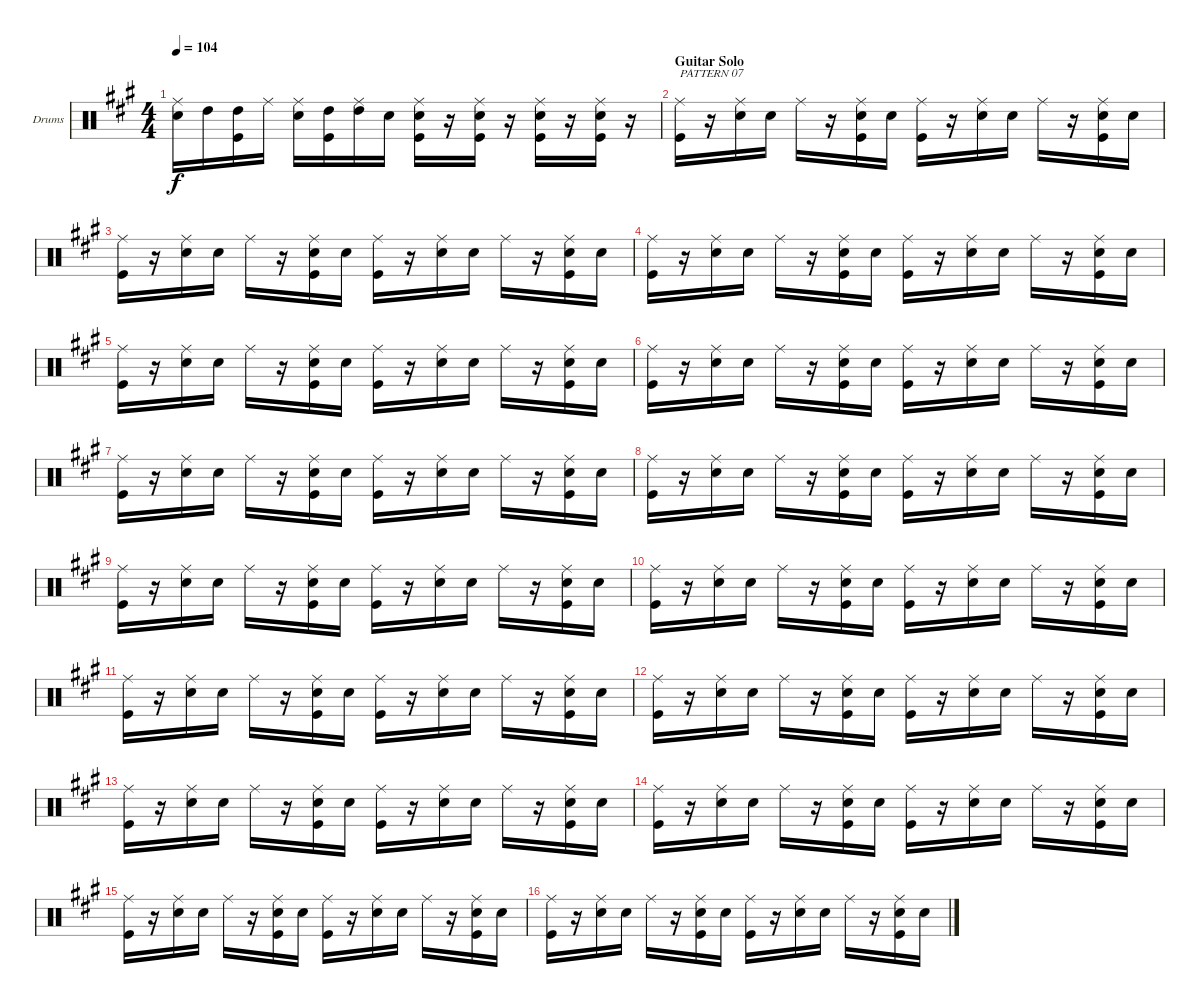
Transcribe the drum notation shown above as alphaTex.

\bracketExtendMode groupsimilarinstruments
\firstSystemTrackNameOrientation horizontal
\otherSystemsTrackNameOrientation horizontal
\track ("Drumkit" "Drums") {instrument percussion}
\staff {score}
\articulation defaults
\ts (4 4)
\tempo 104
\clef neutral
\ks a
("Ride (middle)" "Snare (hit) 2").16{dy f} "High Tom (hit)".16 ("High Tom (hit)" "Kick (hit)").16 "Ride (middle)".16 ("Ride (middle)" "Snare (hit) 2").16 ("High Tom (hit)" "Kick (hit)").16 ("Ride (middle)" "High Tom (hit)").16 "Snare (hit) 2".16 ("Ride (middle)" "Snare (hit) 2" "Kick (hit)").16 r.16 ("Ride (middle)" "Snare (hit) 2" "Kick (hit)").16 r.16 ("Ride (middle)" "Snare (hit) 2" "Kick (hit)").16 r.16 ("Ride (middle)" "Snare (hit) 2" "Kick (hit)").16 r.16 |
\section ("" "Guitar Solo")
("Ride (middle)" "Kick (hit)").16{txt "PATTERN 07"} r.16 ("Ride (middle)" "Snare (hit) 2").16 "Snare (hit) 2".16 "Ride (middle)".16 r.16 ("Ride (middle)" "Snare (hit) 2" "Kick (hit)").16 "Snare (hit) 2".16 ("Ride (middle)" "Kick (hit)").16 r.16 ("Ride (middle)" "Snare (hit) 2").16 "Snare (hit) 2".16 "Ride (middle)".16 r.16 ("Ride (middle)" "Snare (hit) 2" "Kick (hit)").16 "Snare (hit) 2".16 |
("Ride (middle)" "Kick (hit)").16 r.16 ("Ride (middle)" "Snare (hit) 2").16 "Snare (hit) 2".16 "Ride (middle)".16 r.16 ("Ride (middle)" "Snare (hit) 2" "Kick (hit)").16 "Snare (hit) 2".16 ("Ride (middle)" "Kick (hit)").16 r.16 ("Ride (middle)" "Snare (hit) 2").16 "Snare (hit) 2".16 "Ride (middle)".16 r.16 ("Ride (middle)" "Snare (hit) 2" "Kick (hit)").16 "Snare (hit) 2".16 |
("Ride (middle)" "Kick (hit)").16 r.16 ("Ride (middle)" "Snare (hit) 2").16 "Snare (hit) 2".16 "Ride (middle)".16 r.16 ("Ride (middle)" "Snare (hit) 2" "Kick (hit)").16 "Snare (hit) 2".16 ("Ride (middle)" "Kick (hit)").16 r.16 ("Ride (middle)" "Snare (hit) 2").16 "Snare (hit) 2".16 "Ride (middle)".16 r.16 ("Ride (middle)" "Snare (hit) 2" "Kick (hit)").16 "Snare (hit) 2".16 |
("Ride (middle)" "Kick (hit)").16 r.16 ("Ride (middle)" "Snare (hit) 2").16 "Snare (hit) 2".16 "Ride (middle)".16 r.16 ("Ride (middle)" "Snare (hit) 2" "Kick (hit)").16 "Snare (hit) 2".16 ("Ride (middle)" "Kick (hit)").16 r.16 ("Ride (middle)" "Snare (hit) 2").16 "Snare (hit) 2".16 "Ride (middle)".16 r.16 ("Ride (middle)" "Snare (hit) 2" "Kick (hit)").16 "Snare (hit) 2".16 |
("Ride (middle)" "Kick (hit)").16 r.16 ("Ride (middle)" "Snare (hit) 2").16 "Snare (hit) 2".16 "Ride (middle)".16 r.16 ("Ride (middle)" "Snare (hit) 2" "Kick (hit)").16 "Snare (hit) 2".16 ("Ride (middle)" "Kick (hit)").16 r.16 ("Ride (middle)" "Snare (hit) 2").16 "Snare (hit) 2".16 "Ride (middle)".16 r.16 ("Ride (middle)" "Snare (hit) 2" "Kick (hit)").16 "Snare (hit) 2".16 |
("Ride (middle)" "Kick (hit)").16 r.16 ("Ride (middle)" "Snare (hit) 2").16 "Snare (hit) 2".16 "Ride (middle)".16 r.16 ("Ride (middle)" "Snare (hit) 2" "Kick (hit)").16 "Snare (hit) 2".16 ("Ride (middle)" "Kick (hit)").16 r.16 ("Ride (middle)" "Snare (hit) 2").16 "Snare (hit) 2".16 "Ride (middle)".16 r.16 ("Ride (middle)" "Snare (hit) 2" "Kick (hit)").16 "Snare (hit) 2".16 |
("Ride (middle)" "Kick (hit)").16 r.16 ("Ride (middle)" "Snare (hit) 2").16 "Snare (hit) 2".16 "Ride (middle)".16 r.16 ("Ride (middle)" "Snare (hit) 2" "Kick (hit)").16 "Snare (hit) 2".16 ("Ride (middle)" "Kick (hit)").16 r.16 ("Ride (middle)" "Snare (hit) 2").16 "Snare (hit) 2".16 "Ride (middle)".16 r.16 ("Ride (middle)" "Snare (hit) 2" "Kick (hit)").16 "Snare (hit) 2".16 |
("Ride (middle)" "Kick (hit)").16 r.16 ("Ride (middle)" "Snare (hit) 2").16 "Snare (hit) 2".16 "Ride (middle)".16 r.16 ("Ride (middle)" "Snare (hit) 2" "Kick (hit)").16 "Snare (hit) 2".16 ("Ride (middle)" "Kick (hit)").16 r.16 ("Ride (middle)" "Snare (hit) 2").16 "Snare (hit) 2".16 "Ride (middle)".16 r.16 ("Ride (middle)" "Snare (hit) 2" "Kick (hit)").16 "Snare (hit) 2".16 |
("Ride (middle)" "Kick (hit)").16 r.16 ("Ride (middle)" "Snare (hit) 2").16 "Snare (hit) 2".16 "Ride (middle)".16 r.16 ("Ride (middle)" "Snare (hit) 2" "Kick (hit)").16 "Snare (hit) 2".16 ("Ride (middle)" "Kick (hit)").16 r.16 ("Ride (middle)" "Snare (hit) 2").16 "Snare (hit) 2".16 "Ride (middle)".16 r.16 ("Ride (middle)" "Snare (hit) 2" "Kick (hit)").16 "Snare (hit) 2".16 |
("Ride (middle)" "Kick (hit)").16 r.16 ("Ride (middle)" "Snare (hit) 2").16 "Snare (hit) 2".16 "Ride (middle)".16 r.16 ("Ride (middle)" "Snare (hit) 2" "Kick (hit)").16 "Snare (hit) 2".16 ("Ride (middle)" "Kick (hit)").16 r.16 ("Ride (middle)" "Snare (hit) 2").16 "Snare (hit) 2".16 "Ride (middle)".16 r.16 ("Ride (middle)" "Snare (hit) 2" "Kick (hit)").16 "Snare (hit) 2".16 |
("Ride (middle)" "Kick (hit)").16 r.16 ("Ride (middle)" "Snare (hit) 2").16 "Snare (hit) 2".16 "Ride (middle)".16 r.16 ("Ride (middle)" "Snare (hit) 2" "Kick (hit)").16 "Snare (hit) 2".16 ("Ride (middle)" "Kick (hit)").16 r.16 ("Ride (middle)" "Snare (hit) 2").16 "Snare (hit) 2".16 "Ride (middle)".16 r.16 ("Ride (middle)" "Snare (hit) 2" "Kick (hit)").16 "Snare (hit) 2".16 |
("Ride (middle)" "Kick (hit)").16 r.16 ("Ride (middle)" "Snare (hit) 2").16 "Snare (hit) 2".16 "Ride (middle)".16 r.16 ("Ride (middle)" "Snare (hit) 2" "Kick (hit)").16 "Snare (hit) 2".16 ("Ride (middle)" "Kick (hit)").16 r.16 ("Ride (middle)" "Snare (hit) 2").16 "Snare (hit) 2".16 "Ride (middle)".16 r.16 ("Ride (middle)" "Snare (hit) 2" "Kick (hit)").16 "Snare (hit) 2".16 |
("Ride (middle)" "Kick (hit)").16 r.16 ("Ride (middle)" "Snare (hit) 2").16 "Snare (hit) 2".16 "Ride (middle)".16 r.16 ("Ride (middle)" "Snare (hit) 2" "Kick (hit)").16 "Snare (hit) 2".16 ("Ride (middle)" "Kick (hit)").16 r.16 ("Ride (middle)" "Snare (hit) 2").16 "Snare (hit) 2".16 "Ride (middle)".16 r.16 ("Ride (middle)" "Snare (hit) 2" "Kick (hit)").16 "Snare (hit) 2".16 |
("Ride (middle)" "Kick (hit)").16 r.16 ("Ride (middle)" "Snare (hit) 2").16 "Snare (hit) 2".16 "Ride (middle)".16 r.16 ("Ride (middle)" "Snare (hit) 2" "Kick (hit)").16 "Snare (hit) 2".16 ("Ride (middle)" "Kick (hit)").16 r.16 ("Ride (middle)" "Snare (hit) 2").16 "Snare (hit) 2".16 "Ride (middle)".16 r.16 ("Ride (middle)" "Snare (hit) 2" "Kick (hit)").16 "Snare (hit) 2".16 |
("Ride (middle)" "Kick (hit)").16 r.16 ("Ride (middle)" "Snare (hit) 2").16 "Snare (hit) 2".16 "Ride (middle)".16 r.16 ("Ride (middle)" "Snare (hit) 2" "Kick (hit)").16 "Snare (hit) 2".16 ("Ride (middle)" "Kick (hit)").16 r.16 ("Ride (middle)" "Snare (hit) 2").16 "Snare (hit) 2".16 "Ride (middle)".16 r.16 ("Ride (middle)" "Snare (hit) 2" "Kick (hit)").16 "Snare (hit) 2".16
